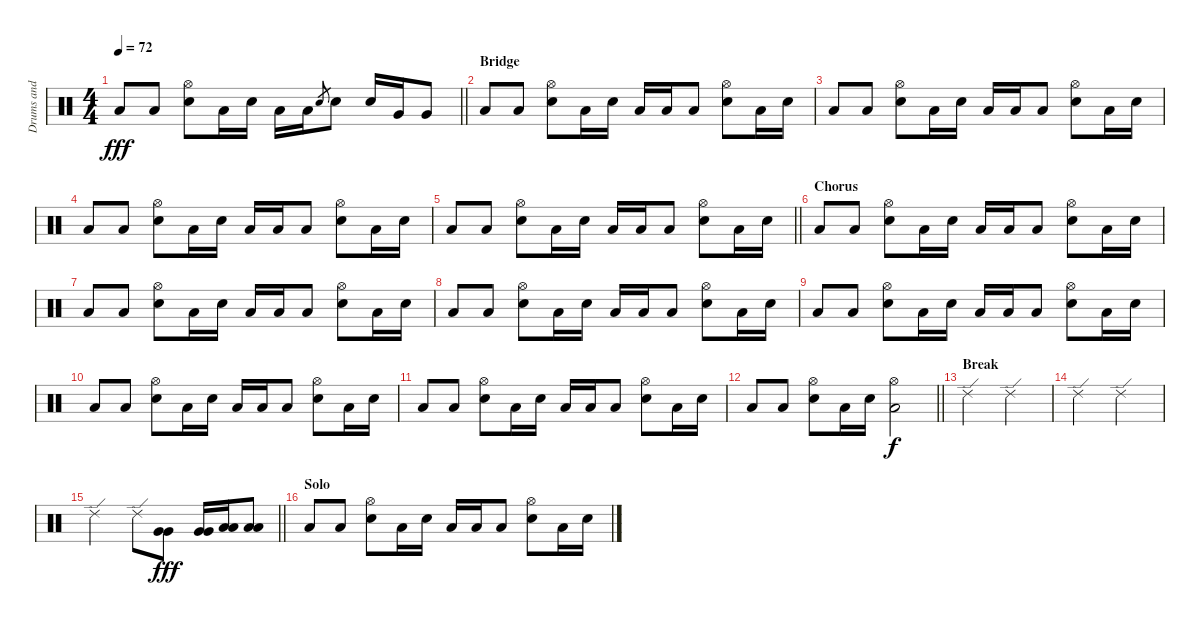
\track ("Drums and Percussions" "Drums and ") {instrument percussion}
\staff {score}
\articulation defaults
\ts (4 4)
\tempo 72
\clef neutral
\barLineRight lightlight
\ks c "Low Floor Tom (hit)".8{dy fff} "Low Floor Tom (hit)".8
("Hi-Hat (open)" "Snare (hit) 2").8 "Low Floor Tom (hit)".16 "Snare (hit) 2".16 "Low Floor Tom (hit)".16 "Low Floor Tom (hit)".16 "Snare (hit) 2".8{gr} "Snare (hit) 2".8 "Snare (hit) 2".16 "Very Low Tom (hit)".16 "Very Low Tom (hit)".8 |
\section ("" "Bridge")
"Low Floor Tom (hit)".8 "Low Floor Tom (hit)".8 ("Hi-Hat (open)" "Snare (hit) 2").8 "Low Floor Tom (hit)".16 "Snare (hit) 2".16 "Low Floor Tom (hit)".16 "Low Floor Tom (hit)".16 "Low Floor Tom (hit)".8 ("Hi-Hat (open)" "Snare (hit) 2").8 "Low Floor Tom (hit)".16 "Snare (hit) 2".16 |
"Low Floor Tom (hit)".8 "Low Floor Tom (hit)".8 ("Hi-Hat (open)" "Snare (hit) 2").8 "Low Floor Tom (hit)".16 "Snare (hit) 2".16 "Low Floor Tom (hit)".16 "Low Floor Tom (hit)".16 "Low Floor Tom (hit)".8 ("Hi-Hat (open)" "Snare (hit) 2").8 "Low Floor Tom (hit)".16 "Snare (hit) 2".16 |
"Low Floor Tom (hit)".8 "Low Floor Tom (hit)".8 ("Hi-Hat (open)" "Snare (hit) 2").8 "Low Floor Tom (hit)".16 "Snare (hit) 2".16 "Low Floor Tom (hit)".16 "Low Floor Tom (hit)".16 "Low Floor Tom (hit)".8 ("Hi-Hat (open)" "Snare (hit) 2").8 "Low Floor Tom (hit)".16 "Snare (hit) 2".16 |
\barLineRight lightlight "Low Floor Tom (hit)".8 "Low Floor Tom (hit)".8
("Hi-Hat (open)" "Snare (hit) 2").8 "Low Floor Tom (hit)".16 "Snare (hit) 2".16 "Low Floor Tom (hit)".16 "Low Floor Tom (hit)".16 "Low Floor Tom (hit)".8 ("Hi-Hat (open)" "Snare (hit) 2").8 "Low Floor Tom (hit)".16 "Snare (hit) 2".16 |
\section ("" "Chorus")
"Low Floor Tom (hit)".8 "Low Floor Tom (hit)".8 ("Hi-Hat (open)" "Snare (hit) 2").8 "Low Floor Tom (hit)".16 "Snare (hit) 2".16 "Low Floor Tom (hit)".16 "Low Floor Tom (hit)".16 "Low Floor Tom (hit)".8 ("Hi-Hat (open)" "Snare (hit) 2").8 "Low Floor Tom (hit)".16 "Snare (hit) 2".16 |
"Low Floor Tom (hit)".8 "Low Floor Tom (hit)".8 ("Hi-Hat (open)" "Snare (hit) 2").8 "Low Floor Tom (hit)".16 "Snare (hit) 2".16 "Low Floor Tom (hit)".16 "Low Floor Tom (hit)".16 "Low Floor Tom (hit)".8 ("Hi-Hat (open)" "Snare (hit) 2").8 "Low Floor Tom (hit)".16 "Snare (hit) 2".16 |
"Low Floor Tom (hit)".8 "Low Floor Tom (hit)".8 ("Hi-Hat (open)" "Snare (hit) 2").8 "Low Floor Tom (hit)".16 "Snare (hit) 2".16 "Low Floor Tom (hit)".16 "Low Floor Tom (hit)".16 "Low Floor Tom (hit)".8 ("Hi-Hat (open)" "Snare (hit) 2").8 "Low Floor Tom (hit)".16 "Snare (hit) 2".16 |
"Low Floor Tom (hit)".8 "Low Floor Tom (hit)".8 ("Hi-Hat (open)" "Snare (hit) 2").8 "Low Floor Tom (hit)".16 "Snare (hit) 2".16 "Low Floor Tom (hit)".16 "Low Floor Tom (hit)".16 "Low Floor Tom (hit)".8 ("Hi-Hat (open)" "Snare (hit) 2").8 "Low Floor Tom (hit)".16 "Snare (hit) 2".16 |
"Low Floor Tom (hit)".8 "Low Floor Tom (hit)".8 ("Hi-Hat (open)" "Snare (hit) 2").8 "Low Floor Tom (hit)".16 "Snare (hit) 2".16 "Low Floor Tom (hit)".16 "Low Floor Tom (hit)".16 "Low Floor Tom (hit)".8 ("Hi-Hat (open)" "Snare (hit) 2").8 "Low Floor Tom (hit)".16 "Snare (hit) 2".16 |
"Low Floor Tom (hit)".8 "Low Floor Tom (hit)".8 ("Hi-Hat (open)" "Snare (hit) 2").8 "Low Floor Tom (hit)".16 "Snare (hit) 2".16 "Low Floor Tom (hit)".16 "Low Floor Tom (hit)".16 "Low Floor Tom (hit)".8 ("Hi-Hat (open)" "Snare (hit) 2").8 "Low Floor Tom (hit)".16 "Snare (hit) 2".16 |
\barLineRight lightlight "Low Floor Tom (hit)".8 "Low Floor Tom (hit)".8
("Hi-Hat (open)" "Snare (hit) 2").8 "Low Floor Tom (hit)".16 "Snare (hit) 2".16 ("Hi-Hat (open)" "Low Floor Tom (hit)").2{dy f} |
\section ("" "Break")
"Ride (edge) 2".2 "Ride (edge) 2".2 |
"Ride (edge) 2".2 "Ride (edge) 2".2 |
\barLineRight lightlight "Ride (edge) 2".2 "Ride (edge) 2".8
("Very Low Tom (hit)" "Very Low Tom (hit)").8{dy fff} ("Very Low Tom (hit)" "Very Low Tom (hit)").16 ("Low Floor Tom (hit)" "Low Floor Tom (hit)").16 ("Low Floor Tom (hit)" "Low Floor Tom (hit)").8 |
\section ("" "Solo")
"Low Floor Tom (hit)".8 "Low Floor Tom (hit)".8 ("Hi-Hat (open)" "Snare (hit) 2").8 "Low Floor Tom (hit)".16 "Snare (hit) 2".16 "Low Floor Tom (hit)".16 "Low Floor Tom (hit)".16 "Low Floor Tom (hit)".8 ("Hi-Hat (open)" "Snare (hit) 2").8 "Low Floor Tom (hit)".16 "Snare (hit) 2".16
